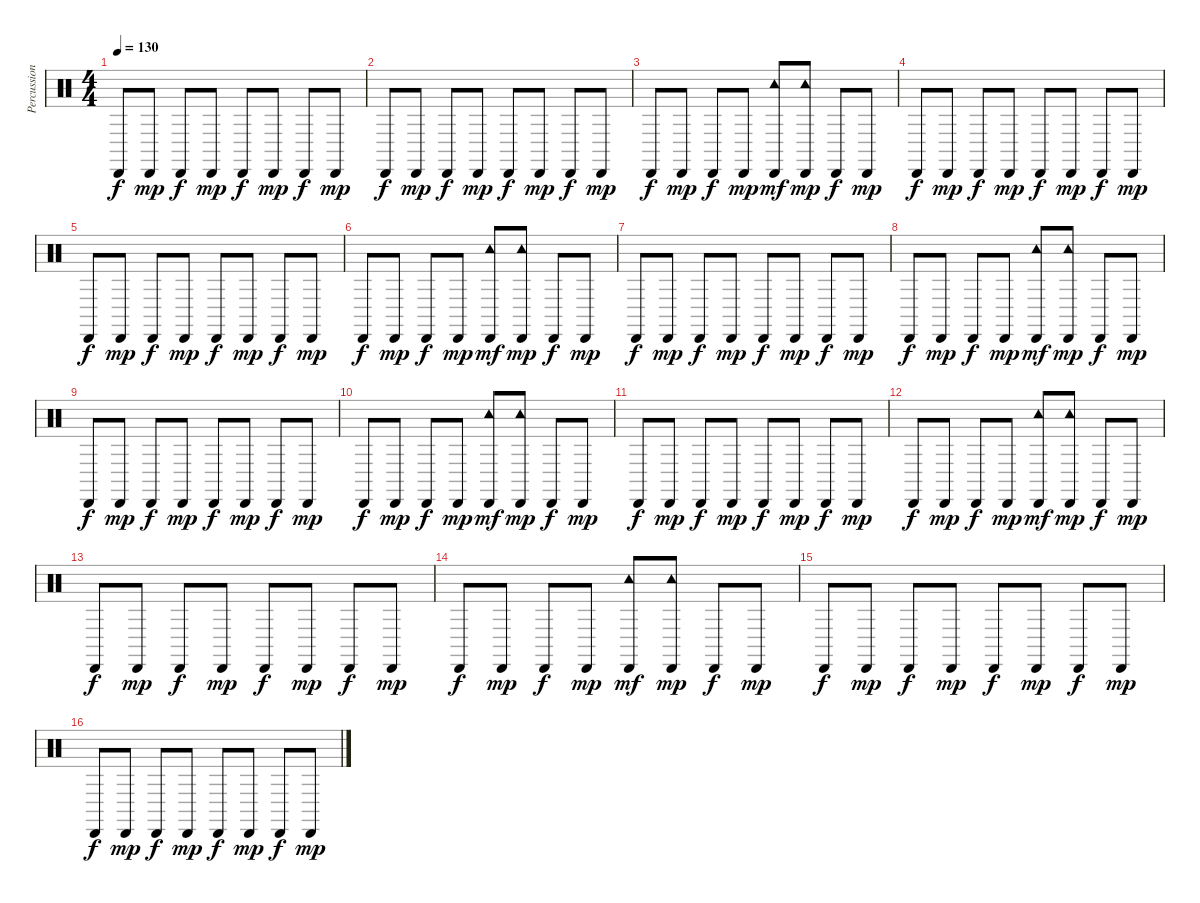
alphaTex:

\track ("Percussion" "Percussion") {instrument percussion}
\staff {score}
\articulation defaults
\ts (4 4)
\tempo 130
\clef neutral
\ks c "Cabasa (hit)".8{dy f} "Cabasa (hit)".8{dy mp} "Cabasa (hit)".8{dy f} "Cabasa (hit)".8{dy mp} "Cabasa (hit)".8{dy f} "Cabasa (hit)".8{dy mp} "Cabasa (hit)".8{dy f} "Cabasa (hit)".8{dy mp}
|
"Cabasa (hit)".8{dy f} "Cabasa (hit)".8{dy mp} "Cabasa (hit)".8{dy f} "Cabasa (hit)".8{dy mp} "Cabasa (hit)".8{dy f} "Cabasa (hit)".8{dy mp} "Cabasa (hit)".8{dy f} "Cabasa (hit)".8{dy mp} |
"Cabasa (hit)".8{dy f} "Cabasa (hit)".8{dy mp} "Cabasa (hit)".8{dy f} "Cabasa (hit)".8{dy mp} ("Tambourine (hit)" "Cabasa (hit)").8{dy mf} ("Tambourine (hit)" "Cabasa (hit)").8{dy mp} "Cabasa (hit)".8{dy f} "Cabasa (hit)".8{dy mp} |
"Cabasa (hit)".8{dy f} "Cabasa (hit)".8{dy mp} "Cabasa (hit)".8{dy f} "Cabasa (hit)".8{dy mp} "Cabasa (hit)".8{dy f} "Cabasa (hit)".8{dy mp} "Cabasa (hit)".8{dy f} "Cabasa (hit)".8{dy mp} |
"Cabasa (hit)".8{dy f} "Cabasa (hit)".8{dy mp} "Cabasa (hit)".8{dy f} "Cabasa (hit)".8{dy mp} "Cabasa (hit)".8{dy f} "Cabasa (hit)".8{dy mp} "Cabasa (hit)".8{dy f} "Cabasa (hit)".8{dy mp} |
"Cabasa (hit)".8{dy f} "Cabasa (hit)".8{dy mp} "Cabasa (hit)".8{dy f} "Cabasa (hit)".8{dy mp} ("Tambourine (hit)" "Cabasa (hit)").8{dy mf} ("Tambourine (hit)" "Cabasa (hit)").8{dy mp} "Cabasa (hit)".8{dy f} "Cabasa (hit)".8{dy mp} |
"Cabasa (hit)".8{dy f} "Cabasa (hit)".8{dy mp} "Cabasa (hit)".8{dy f} "Cabasa (hit)".8{dy mp} "Cabasa (hit)".8{dy f} "Cabasa (hit)".8{dy mp} "Cabasa (hit)".8{dy f} "Cabasa (hit)".8{dy mp} |
"Cabasa (hit)".8{dy f} "Cabasa (hit)".8{dy mp} "Cabasa (hit)".8{dy f} "Cabasa (hit)".8{dy mp} ("Tambourine (hit)" "Cabasa (hit)").8{dy mf} ("Tambourine (hit)" "Cabasa (hit)").8{dy mp} "Cabasa (hit)".8{dy f} "Cabasa (hit)".8{dy mp} |
"Cabasa (hit)".8{dy f} "Cabasa (hit)".8{dy mp} "Cabasa (hit)".8{dy f} "Cabasa (hit)".8{dy mp} "Cabasa (hit)".8{dy f} "Cabasa (hit)".8{dy mp} "Cabasa (hit)".8{dy f} "Cabasa (hit)".8{dy mp} |
"Cabasa (hit)".8{dy f} "Cabasa (hit)".8{dy mp} "Cabasa (hit)".8{dy f} "Cabasa (hit)".8{dy mp} ("Tambourine (hit)" "Cabasa (hit)").8{dy mf} ("Tambourine (hit)" "Cabasa (hit)").8{dy mp} "Cabasa (hit)".8{dy f} "Cabasa (hit)".8{dy mp} |
"Cabasa (hit)".8{dy f} "Cabasa (hit)".8{dy mp} "Cabasa (hit)".8{dy f} "Cabasa (hit)".8{dy mp} "Cabasa (hit)".8{dy f} "Cabasa (hit)".8{dy mp} "Cabasa (hit)".8{dy f} "Cabasa (hit)".8{dy mp} |
"Cabasa (hit)".8{dy f} "Cabasa (hit)".8{dy mp} "Cabasa (hit)".8{dy f} "Cabasa (hit)".8{dy mp} ("Tambourine (hit)" "Cabasa (hit)").8{dy mf} ("Tambourine (hit)" "Cabasa (hit)").8{dy mp} "Cabasa (hit)".8{dy f} "Cabasa (hit)".8{dy mp} |
"Cabasa (hit)".8{dy f} "Cabasa (hit)".8{dy mp} "Cabasa (hit)".8{dy f} "Cabasa (hit)".8{dy mp} "Cabasa (hit)".8{dy f} "Cabasa (hit)".8{dy mp} "Cabasa (hit)".8{dy f} "Cabasa (hit)".8{dy mp} |
"Cabasa (hit)".8{dy f} "Cabasa (hit)".8{dy mp} "Cabasa (hit)".8{dy f} "Cabasa (hit)".8{dy mp} ("Tambourine (hit)" "Cabasa (hit)").8{dy mf} ("Tambourine (hit)" "Cabasa (hit)").8{dy mp} "Cabasa (hit)".8{dy f} "Cabasa (hit)".8{dy mp} |
"Cabasa (hit)".8{dy f} "Cabasa (hit)".8{dy mp} "Cabasa (hit)".8{dy f} "Cabasa (hit)".8{dy mp} "Cabasa (hit)".8{dy f} "Cabasa (hit)".8{dy mp} "Cabasa (hit)".8{dy f} "Cabasa (hit)".8{dy mp} |
"Cabasa (hit)".8{dy f} "Cabasa (hit)".8{dy mp} "Cabasa (hit)".8{dy f} "Cabasa (hit)".8{dy mp} "Cabasa (hit)".8{dy f} "Cabasa (hit)".8{dy mp} "Cabasa (hit)".8{dy f} "Cabasa (hit)".8{dy mp}
